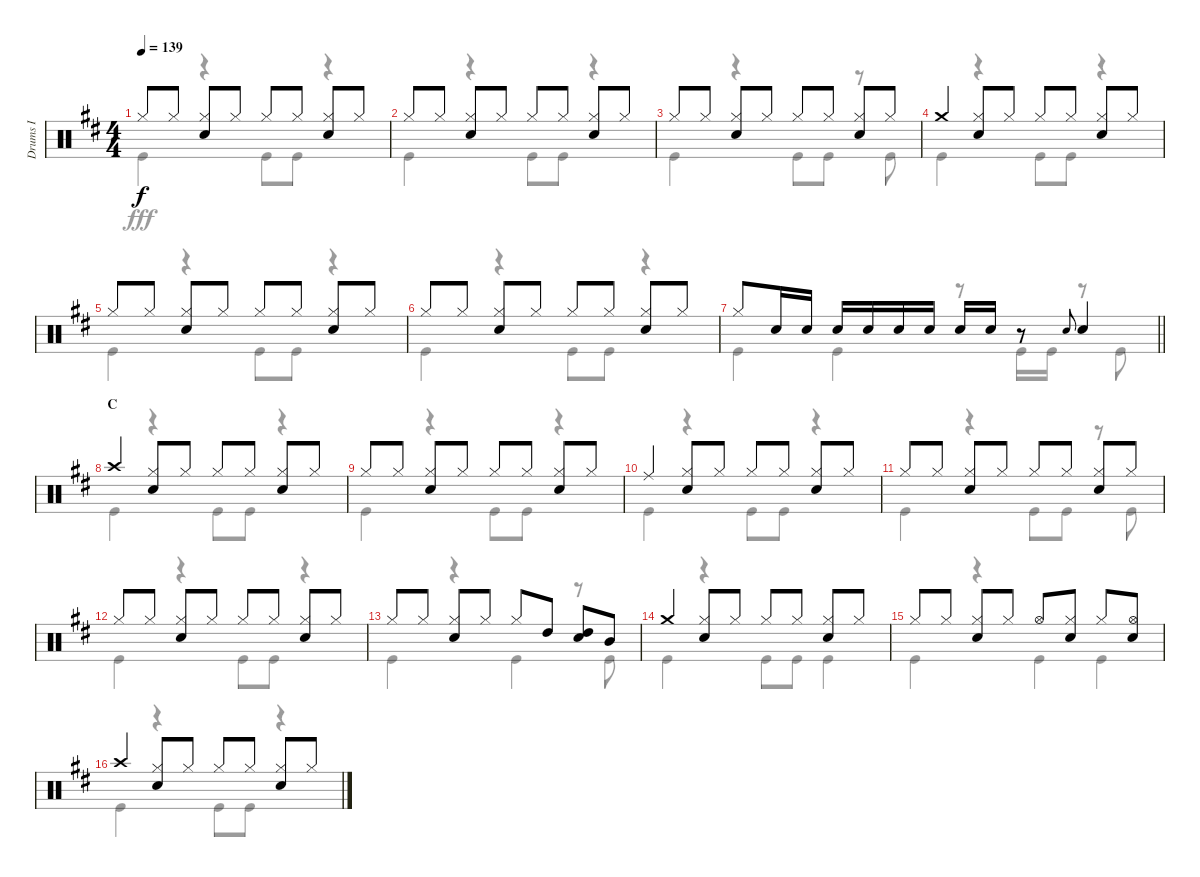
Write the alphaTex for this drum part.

\track ("Drums I" "Drums I") {instrument percussion}
\staff {score}
\articulation defaults
\voice
\ts (4 4)
\tempo 139
\clef neutral
\ks d "Hi-Hat (closed)".8{dy f} "Hi-Hat (closed)".8
("Hi-Hat (closed)" "Snare (hit) 2").8 "Hi-Hat (closed)".8 "Hi-Hat (closed)".8 "Hi-Hat (closed)".8 ("Hi-Hat (closed)" "Snare (hit) 2").8 "Hi-Hat (closed)".8 |
"Hi-Hat (closed)".8 "Hi-Hat (closed)".8 ("Hi-Hat (closed)" "Snare (hit) 2").8 "Hi-Hat (closed)".8 "Hi-Hat (closed)".8 "Hi-Hat (closed)".8 ("Hi-Hat (closed)" "Snare (hit) 2").8 "Hi-Hat (closed)".8 |
"Hi-Hat (closed)".8 "Hi-Hat (closed)".8 ("Hi-Hat (closed)" "Snare (hit) 2").8 "Hi-Hat (closed)".8 "Hi-Hat (closed)".8 "Hi-Hat (closed)".8 ("Hi-Hat (closed)" "Snare (hit) 2").8 "Hi-Hat (closed)".8 |
"Crash medium (hit)".4 ("Hi-Hat (closed)" "Snare (hit) 2").8 "Hi-Hat (closed)".8 "Hi-Hat (closed)".8 "Hi-Hat (closed)".8 ("Hi-Hat (closed)" "Snare (hit) 2").8 "Hi-Hat (closed)".8 |
"Hi-Hat (closed)".8 "Hi-Hat (closed)".8 ("Hi-Hat (closed)" "Snare (hit) 2").8 "Hi-Hat (closed)".8 "Hi-Hat (closed)".8 "Hi-Hat (closed)".8 ("Hi-Hat (closed)" "Snare (hit) 2").8 "Hi-Hat (closed)".8 |
"Hi-Hat (closed)".8 "Hi-Hat (closed)".8 ("Hi-Hat (closed)" "Snare (hit) 2").8 "Hi-Hat (closed)".8 "Hi-Hat (closed)".8 "Hi-Hat (closed)".8 ("Hi-Hat (closed)" "Snare (hit) 2").8 "Hi-Hat (closed)".8 |
\barLineRight lightlight "Hi-Hat (closed)".8 "Snare (hit) 2".16 "Snare (hit) 2".16 "Snare (hit) 2".16 "Snare (hit) 2".16 "Snare (hit) 2".16 "Snare (hit) 2".16 "Snare (hit) 2".16 "Snare (hit) 2".16
r.8 "Snare (hit) 2".8{gr onbeat} "Snare (hit) 2".4 |
\section ("" "C")
"Crash high (hit)".4 ("Hi-Hat (closed)" "Snare (hit) 2").8 "Hi-Hat (closed)".8 "Hi-Hat (closed)".8 "Hi-Hat (closed)".8 ("Hi-Hat (closed)" "Snare (hit) 2").8 "Hi-Hat (closed)".8 |
"Hi-Hat (closed)".8 "Hi-Hat (closed)".8 ("Hi-Hat (closed)" "Snare (hit) 2").8 "Hi-Hat (closed)".8 "Hi-Hat (closed)".8 "Hi-Hat (closed)".8 ("Hi-Hat (closed)" "Snare (hit) 2").8 "Hi-Hat (closed)".8 |
"Ride (middle)".4 ("Hi-Hat (closed)" "Snare (hit) 2").8 "Hi-Hat (closed)".8 "Hi-Hat (closed)".8 "Hi-Hat (closed)".8 ("Hi-Hat (closed)" "Snare (hit) 2").8 "Hi-Hat (closed)".8 |
"Hi-Hat (closed)".8 "Hi-Hat (closed)".8 ("Hi-Hat (closed)" "Snare (hit) 2").8 "Hi-Hat (closed)".8 "Hi-Hat (closed)".8 "Hi-Hat (closed)".8 ("Hi-Hat (closed)" "Snare (hit) 2").8 "Hi-Hat (closed)".8 |
"Hi-Hat (closed)".8 "Hi-Hat (closed)".8 ("Hi-Hat (closed)" "Snare (hit) 2").8 "Hi-Hat (closed)".8 "Hi-Hat (closed)".8 "Hi-Hat (closed)".8 ("Hi-Hat (closed)" "Snare (hit) 2").8 "Hi-Hat (closed)".8 |
"Hi-Hat (closed)".8 "Hi-Hat (closed)".8 ("Hi-Hat (closed)" "Snare (hit) 2").8 "Hi-Hat (closed)".8 "Hi-Hat (closed)".8 "High Tom (hit)".8 ("High Tom (hit)" "Snare (hit) 2").8 "Mid Tom (hit)".8 |
"Crash medium (hit)".4 ("Hi-Hat (closed)" "Snare (hit) 2").8 "Hi-Hat (closed)".8 "Hi-Hat (closed)".8 "Hi-Hat (closed)".8 ("Hi-Hat (closed)" "Snare (hit) 2").8 "Hi-Hat (closed)".8 |
"Hi-Hat (closed)".8 "Hi-Hat (closed)".8 ("Hi-Hat (closed)" "Snare (hit) 2").8 "Hi-Hat (closed)".8 "Hi-Hat (open)".8 ("Hi-Hat (closed)" "Snare (hit) 2").8 "Hi-Hat (closed)".8 ("Hi-Hat (open)" "Snare (hit) 2").8 |
"Crash high (hit)".4 ("Hi-Hat (closed)" "Snare (hit) 2").8 "Hi-Hat (closed)".8 "Hi-Hat (closed)".8 "Hi-Hat (closed)".8 ("Hi-Hat (closed)" "Snare (hit) 2").8 "Hi-Hat (closed)".8
\voice
\clef neutral
\ottava regular
\simile none
\ks d "Kick (hit)".4{dy fff}
r.4 "Kick (hit)".8 "Kick (hit)".8 r.4 |
"Kick (hit)".4 r.4 "Kick (hit)".8 "Kick (hit)".8 r.4 |
"Kick (hit)".4 r.4 "Kick (hit)".8 "Kick (hit)".8 r.8 "Kick (hit)".8 |
"Kick (hit)".4 r.4 "Kick (hit)".8 "Kick (hit)".8 r.4 |
"Kick (hit)".4 r.4 "Kick (hit)".8 "Kick (hit)".8 r.4 |
"Kick (hit)".4 r.4 "Kick (hit)".8 "Kick (hit)".8 r.4 |
\barLineRight lightlight "Kick (hit)".4 "Kick (hit)".4
r.8 "Kick (hit)".16 "Kick (hit)".16 r.8 "Kick (hit)".8 |
"Kick (hit)".4 r.4 "Kick (hit)".8 "Kick (hit)".8 r.4 |
"Kick (hit)".4 r.4 "Kick (hit)".8 "Kick (hit)".8 r.4 |
"Kick (hit)".4 r.4 "Kick (hit)".8 "Kick (hit)".8 r.4 |
"Kick (hit)".4 r.4 "Kick (hit)".8 "Kick (hit)".8 r.8 "Kick (hit)".8 |
"Kick (hit)".4 r.4 "Kick (hit)".8 "Kick (hit)".8 r.4 |
"Kick (hit)".4 r.4 "Kick (hit)".4 r.8 "Kick (hit)".8 |
"Kick (hit)".4 r.4 "Kick (hit)".8 "Kick (hit)".8 "Kick (hit)".4 |
"Kick (hit)".4 r.4 "Kick (hit)".4 "Kick (hit)".4 |
"Kick (hit)".4 r.4 "Kick (hit)".8 "Kick (hit)".8 r.4
